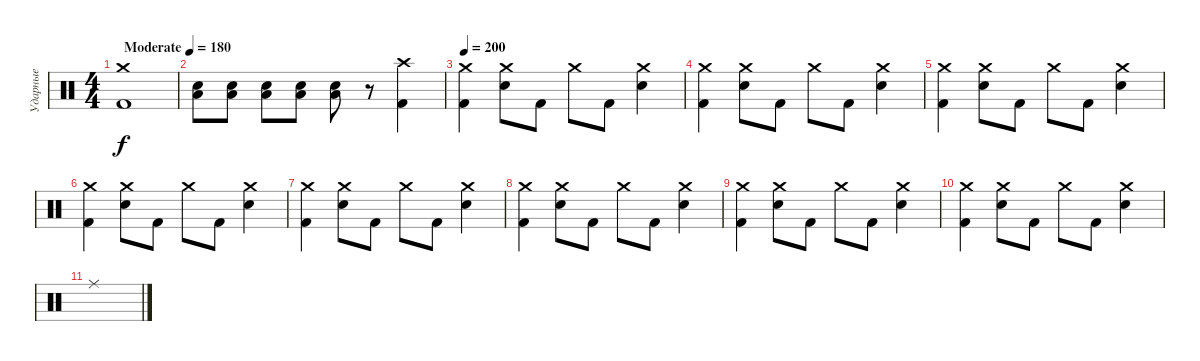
\track ("Ударные" "Ударные") {instrument percussion}
\staff {score}
\articulation defaults
\ts (4 4)
\tempo (180 "Moderate")
\clef neutral
\ks c
("Crash medium (hit)" "Kick (hit) 2").1{dy f} |
("Low Floor Tom (hit)" "Electric Snare (hit)").8 ("Low Floor Tom (hit)" "Electric Snare (hit)").8 ("Low Floor Tom (hit)" "Electric Snare (hit)").8 ("Low Floor Tom (hit)" "Electric Snare (hit)").8 ("Low Floor Tom (hit)" "Electric Snare (hit)").8 r.8 ("Crash high (hit)" "Kick (hit) 2").4 |
\tempo 200
("Crash medium (hit)" "Kick (hit) 2").4 ("Crash medium (hit)" "Electric Snare (hit)").8 "Kick (hit) 2".8 "Crash medium (hit)".8 "Kick (hit) 2".8 ("Crash medium (hit)" "Electric Snare (hit)").4 |
("Crash medium (hit)" "Kick (hit) 2").4 ("Crash medium (hit)" "Electric Snare (hit)").8 "Kick (hit) 2".8 "Crash medium (hit)".8 "Kick (hit) 2".8 ("Crash medium (hit)" "Electric Snare (hit)").4 |
("Crash medium (hit)" "Kick (hit) 2").4 ("Crash medium (hit)" "Electric Snare (hit)").8 "Kick (hit) 2".8 "Crash medium (hit)".8 "Kick (hit) 2".8 ("Crash medium (hit)" "Electric Snare (hit)").4 |
("Crash medium (hit)" "Kick (hit) 2").4 ("Crash medium (hit)" "Electric Snare (hit)").8 "Kick (hit) 2".8 "Crash medium (hit)".8 "Kick (hit) 2".8 ("Crash medium (hit)" "Electric Snare (hit)").4 |
("Crash medium (hit)" "Kick (hit) 2").4 ("Crash medium (hit)" "Electric Snare (hit)").8 "Kick (hit) 2".8 "Crash medium (hit)".8 "Kick (hit) 2".8 ("Crash medium (hit)" "Electric Snare (hit)").4 |
("Crash medium (hit)" "Kick (hit) 2").4 ("Crash medium (hit)" "Electric Snare (hit)").8 "Kick (hit) 2".8 "Crash medium (hit)".8 "Kick (hit) 2".8 ("Crash medium (hit)" "Electric Snare (hit)").4 |
("Crash medium (hit)" "Kick (hit) 2").4 ("Crash medium (hit)" "Electric Snare (hit)").8 "Kick (hit) 2".8 "Crash medium (hit)".8 "Kick (hit) 2".8 ("Crash medium (hit)" "Electric Snare (hit)").4 |
("Crash medium (hit)" "Kick (hit) 2").4 ("Crash medium (hit)" "Electric Snare (hit)").8 "Kick (hit) 2".8 "Crash medium (hit)".8 "Kick (hit) 2".8 ("Crash medium (hit)" "Electric Snare (hit)").4 |
"Ride (middle)".1
